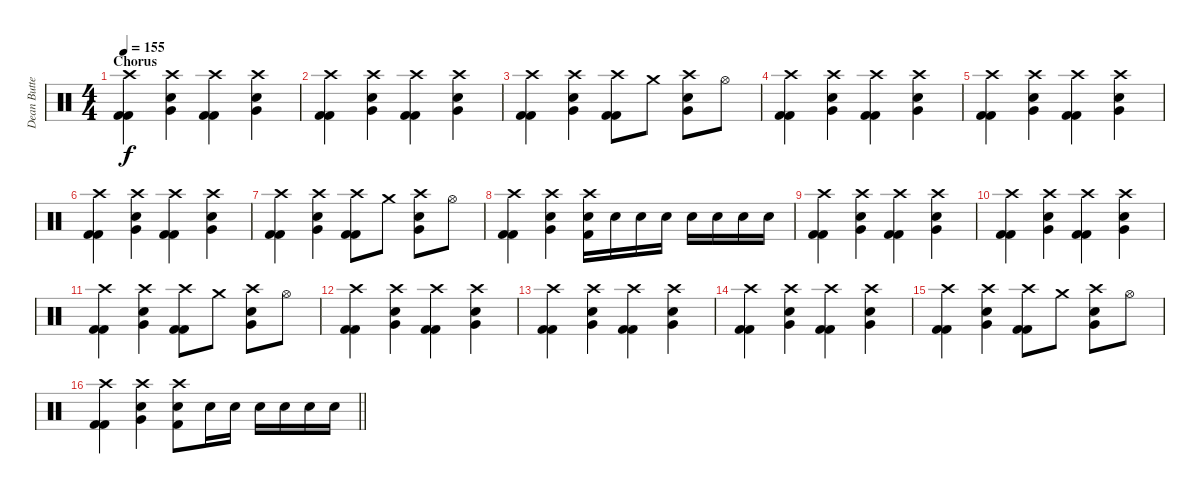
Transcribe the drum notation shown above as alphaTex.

\track ("Dean Butterworth [Drums]" "Dean Butte") {instrument percussion}
\staff {score}
\articulation defaults
\ts (4 4)
\section ("" "Chorus")
\tempo 155
\clef neutral
\ks c
("Crash high (hit)" "Kick (hit) 2" "Kick (hit) 2").4{dy f} ("Crash high (hit)" "Very Low Tom (hit)" "Electric Snare (hit)").4 ("Crash high (hit)" "Kick (hit) 2" "Kick (hit) 2").4 ("Crash high (hit)" "Very Low Tom (hit)" "Electric Snare (hit)").4 |
("Crash high (hit)" "Kick (hit) 2" "Kick (hit) 2").4 ("Crash high (hit)" "Very Low Tom (hit)" "Electric Snare (hit)").4 ("Crash high (hit)" "Kick (hit) 2" "Kick (hit) 2").4 ("Crash high (hit)" "Very Low Tom (hit)" "Electric Snare (hit)").4 |
("Crash high (hit)" "Kick (hit) 2" "Kick (hit) 2").4 ("Crash high (hit)" "Very Low Tom (hit)" "Electric Snare (hit)").4 ("Crash high (hit)" "Kick (hit) 2" "Kick (hit) 2").8 "Crash medium (hit)".8 ("Crash high (hit)" "Very Low Tom (hit)" "Electric Snare (hit)").8 "Hi-Hat (open)".8 |
("Crash high (hit)" "Kick (hit) 2" "Kick (hit) 2").4 ("Crash high (hit)" "Very Low Tom (hit)" "Electric Snare (hit)").4 ("Crash high (hit)" "Kick (hit) 2" "Kick (hit) 2").4 ("Crash high (hit)" "Very Low Tom (hit)" "Electric Snare (hit)").4 |
("Crash high (hit)" "Kick (hit) 2" "Kick (hit) 2").4 ("Crash high (hit)" "Very Low Tom (hit)" "Electric Snare (hit)").4 ("Crash high (hit)" "Kick (hit) 2" "Kick (hit) 2").4 ("Crash high (hit)" "Very Low Tom (hit)" "Electric Snare (hit)").4 |
("Crash high (hit)" "Kick (hit) 2" "Kick (hit) 2").4 ("Crash high (hit)" "Very Low Tom (hit)" "Electric Snare (hit)").4 ("Crash high (hit)" "Kick (hit) 2" "Kick (hit) 2").4 ("Crash high (hit)" "Very Low Tom (hit)" "Electric Snare (hit)").4 |
("Crash high (hit)" "Kick (hit) 2" "Kick (hit) 2").4 ("Crash high (hit)" "Very Low Tom (hit)" "Electric Snare (hit)").4 ("Crash high (hit)" "Kick (hit) 2" "Kick (hit) 2").8 "Crash medium (hit)".8 ("Crash high (hit)" "Very Low Tom (hit)" "Electric Snare (hit)").8 "Hi-Hat (open)".8 |
("Crash high (hit)" "Kick (hit) 2" "Kick (hit) 2").4 ("Crash high (hit)" "Very Low Tom (hit)" "Electric Snare (hit)").4 ("Crash high (hit)" "Electric Snare (hit)" "Kick (hit) 2").16 "Electric Snare (hit)".16 "Electric Snare (hit)".16 "Electric Snare (hit)".16 "Electric Snare (hit)".16 "Electric Snare (hit)".16 "Electric Snare (hit)".16 "Electric Snare (hit)".16 |
("Crash high (hit)" "Kick (hit) 2" "Kick (hit) 2").4 ("Crash high (hit)" "Very Low Tom (hit)" "Electric Snare (hit)").4 ("Crash high (hit)" "Kick (hit) 2" "Kick (hit) 2").4 ("Crash high (hit)" "Very Low Tom (hit)" "Electric Snare (hit)").4 |
("Crash high (hit)" "Kick (hit) 2" "Kick (hit) 2").4 ("Crash high (hit)" "Very Low Tom (hit)" "Electric Snare (hit)").4 ("Crash high (hit)" "Kick (hit) 2" "Kick (hit) 2").4 ("Crash high (hit)" "Very Low Tom (hit)" "Electric Snare (hit)").4 |
("Crash high (hit)" "Kick (hit) 2" "Kick (hit) 2").4 ("Crash high (hit)" "Very Low Tom (hit)" "Electric Snare (hit)").4 ("Crash high (hit)" "Kick (hit) 2" "Kick (hit) 2").8 "Crash medium (hit)".8 ("Crash high (hit)" "Very Low Tom (hit)" "Electric Snare (hit)").8 "Hi-Hat (open)".8 |
("Crash high (hit)" "Kick (hit) 2" "Kick (hit) 2").4 ("Crash high (hit)" "Very Low Tom (hit)" "Electric Snare (hit)").4 ("Crash high (hit)" "Kick (hit) 2" "Kick (hit) 2").4 ("Crash high (hit)" "Very Low Tom (hit)" "Electric Snare (hit)").4 |
("Crash high (hit)" "Kick (hit) 2" "Kick (hit) 2").4 ("Crash high (hit)" "Very Low Tom (hit)" "Electric Snare (hit)").4 ("Crash high (hit)" "Kick (hit) 2" "Kick (hit) 2").4 ("Crash high (hit)" "Very Low Tom (hit)" "Electric Snare (hit)").4 |
("Crash high (hit)" "Kick (hit) 2" "Kick (hit) 2").4 ("Crash high (hit)" "Very Low Tom (hit)" "Electric Snare (hit)").4 ("Crash high (hit)" "Kick (hit) 2" "Kick (hit) 2").4 ("Crash high (hit)" "Very Low Tom (hit)" "Electric Snare (hit)").4 |
("Crash high (hit)" "Kick (hit) 2" "Kick (hit) 2").4 ("Crash high (hit)" "Very Low Tom (hit)" "Electric Snare (hit)").4 ("Crash high (hit)" "Kick (hit) 2" "Kick (hit) 2").8 "Crash medium (hit)".8 ("Crash high (hit)" "Very Low Tom (hit)" "Electric Snare (hit)").8 "Hi-Hat (open)".8 |
\barLineRight lightlight
("Crash high (hit)" "Kick (hit) 2" "Kick (hit) 2").4 ("Crash high (hit)" "Very Low Tom (hit)" "Electric Snare (hit)").4 ("Crash high (hit)" "Electric Snare (hit)" "Kick (hit) 2").8 "Electric Snare (hit)".16 "Electric Snare (hit)".16 "Electric Snare (hit)".16 "Electric Snare (hit)".16 "Electric Snare (hit)".16 "Electric Snare (hit)".16
